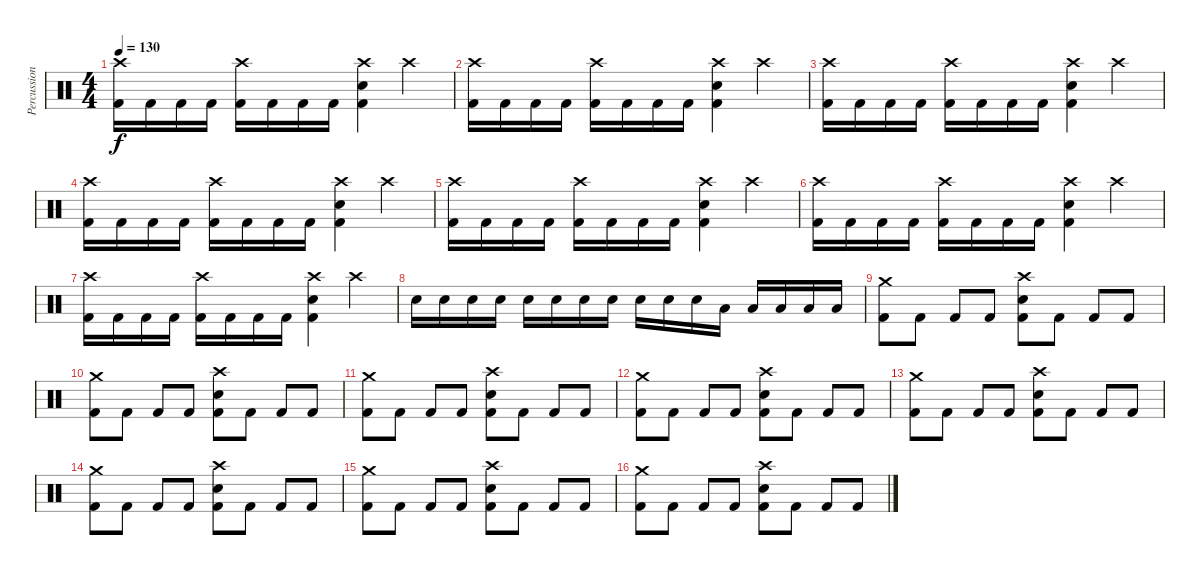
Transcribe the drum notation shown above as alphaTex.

\track ("Percussion" "Percussion") {instrument percussion}
\staff {score}
\articulation defaults
\ts (4 4)
\tempo 130
\clef neutral
\ks c
("Crash high (hit)" "Kick (hit) 2").16{dy f} "Kick (hit) 2".16 "Kick (hit) 2".16 "Kick (hit) 2".16 ("Crash high (hit)" "Kick (hit) 2").16 "Kick (hit) 2".16 "Kick (hit) 2".16 "Kick (hit) 2".16 ("Crash high (hit)" "Electric Snare (hit)" "Kick (hit) 2").4 "Crash high (hit)".4 |
("Crash high (hit)" "Kick (hit) 2").16 "Kick (hit) 2".16 "Kick (hit) 2".16 "Kick (hit) 2".16 ("Crash high (hit)" "Kick (hit) 2").16 "Kick (hit) 2".16 "Kick (hit) 2".16 "Kick (hit) 2".16 ("Crash high (hit)" "Electric Snare (hit)" "Kick (hit) 2").4 "Crash high (hit)".4 |
("Crash high (hit)" "Kick (hit) 2").16 "Kick (hit) 2".16 "Kick (hit) 2".16 "Kick (hit) 2".16 ("Crash high (hit)" "Kick (hit) 2").16 "Kick (hit) 2".16 "Kick (hit) 2".16 "Kick (hit) 2".16 ("Crash high (hit)" "Electric Snare (hit)" "Kick (hit) 2").4 "Crash high (hit)".4 |
("Crash high (hit)" "Kick (hit) 2").16 "Kick (hit) 2".16 "Kick (hit) 2".16 "Kick (hit) 2".16 ("Crash high (hit)" "Kick (hit) 2").16 "Kick (hit) 2".16 "Kick (hit) 2".16 "Kick (hit) 2".16 ("Crash high (hit)" "Electric Snare (hit)" "Kick (hit) 2").4 "Crash high (hit)".4 |
("Crash high (hit)" "Kick (hit) 2").16 "Kick (hit) 2".16 "Kick (hit) 2".16 "Kick (hit) 2".16 ("Crash high (hit)" "Kick (hit) 2").16 "Kick (hit) 2".16 "Kick (hit) 2".16 "Kick (hit) 2".16 ("Crash high (hit)" "Electric Snare (hit)" "Kick (hit) 2").4 "Crash high (hit)".4 |
("Crash high (hit)" "Kick (hit) 2").16 "Kick (hit) 2".16 "Kick (hit) 2".16 "Kick (hit) 2".16 ("Crash high (hit)" "Kick (hit) 2").16 "Kick (hit) 2".16 "Kick (hit) 2".16 "Kick (hit) 2".16 ("Crash high (hit)" "Electric Snare (hit)" "Kick (hit) 2").4 "Crash high (hit)".4 |
("Crash high (hit)" "Kick (hit) 2").16 "Kick (hit) 2".16 "Kick (hit) 2".16 "Kick (hit) 2".16 ("Crash high (hit)" "Kick (hit) 2").16 "Kick (hit) 2".16 "Kick (hit) 2".16 "Kick (hit) 2".16 ("Crash high (hit)" "Electric Snare (hit)" "Kick (hit) 2").4 "Crash high (hit)".4 |
"Electric Snare (hit)".16 "Electric Snare (hit)".16 "Electric Snare (hit)".16 "Electric Snare (hit)".16 "Electric Snare (hit)".16 "Electric Snare (hit)".16 "Electric Snare (hit)".16 "Electric Snare (hit)".16 "Electric Snare (hit)".16 "Electric Snare (hit)".16 "Electric Snare (hit)".16 "Low Tom (hit)".16 "Low Tom (hit)".16 "Low Tom (hit)".16 "Low Tom (hit)".16 "Low Floor Tom (hit)".16 |
("Crash medium (hit)" "Kick (hit) 2").8 "Kick (hit) 2".8 "Kick (hit) 2".8 "Kick (hit) 2".8 ("Crash high (hit)" "Electric Snare (hit)" "Kick (hit) 2").8 "Kick (hit) 2".8 "Kick (hit) 2".8 "Kick (hit) 2".8 |
("Crash medium (hit)" "Kick (hit) 2").8 "Kick (hit) 2".8 "Kick (hit) 2".8 "Kick (hit) 2".8 ("Crash high (hit)" "Electric Snare (hit)" "Kick (hit) 2").8 "Kick (hit) 2".8 "Kick (hit) 2".8 "Kick (hit) 2".8 |
("Crash medium (hit)" "Kick (hit) 2").8 "Kick (hit) 2".8 "Kick (hit) 2".8 "Kick (hit) 2".8 ("Crash high (hit)" "Electric Snare (hit)" "Kick (hit) 2").8 "Kick (hit) 2".8 "Kick (hit) 2".8 "Kick (hit) 2".8 |
("Crash medium (hit)" "Kick (hit) 2").8 "Kick (hit) 2".8 "Kick (hit) 2".8 "Kick (hit) 2".8 ("Crash high (hit)" "Electric Snare (hit)" "Kick (hit) 2").8 "Kick (hit) 2".8 "Kick (hit) 2".8 "Kick (hit) 2".8 |
("Crash medium (hit)" "Kick (hit) 2").8 "Kick (hit) 2".8 "Kick (hit) 2".8 "Kick (hit) 2".8 ("Crash high (hit)" "Electric Snare (hit)" "Kick (hit) 2").8 "Kick (hit) 2".8 "Kick (hit) 2".8 "Kick (hit) 2".8 |
("Crash medium (hit)" "Kick (hit) 2").8 "Kick (hit) 2".8 "Kick (hit) 2".8 "Kick (hit) 2".8 ("Crash high (hit)" "Electric Snare (hit)" "Kick (hit) 2").8 "Kick (hit) 2".8 "Kick (hit) 2".8 "Kick (hit) 2".8 |
("Crash medium (hit)" "Kick (hit) 2").8 "Kick (hit) 2".8 "Kick (hit) 2".8 "Kick (hit) 2".8 ("Crash high (hit)" "Electric Snare (hit)" "Kick (hit) 2").8 "Kick (hit) 2".8 "Kick (hit) 2".8 "Kick (hit) 2".8 |
("Crash medium (hit)" "Kick (hit) 2").8 "Kick (hit) 2".8 "Kick (hit) 2".8 "Kick (hit) 2".8 ("Crash high (hit)" "Electric Snare (hit)" "Kick (hit) 2").8 "Kick (hit) 2".8 "Kick (hit) 2".8 "Kick (hit) 2".8
